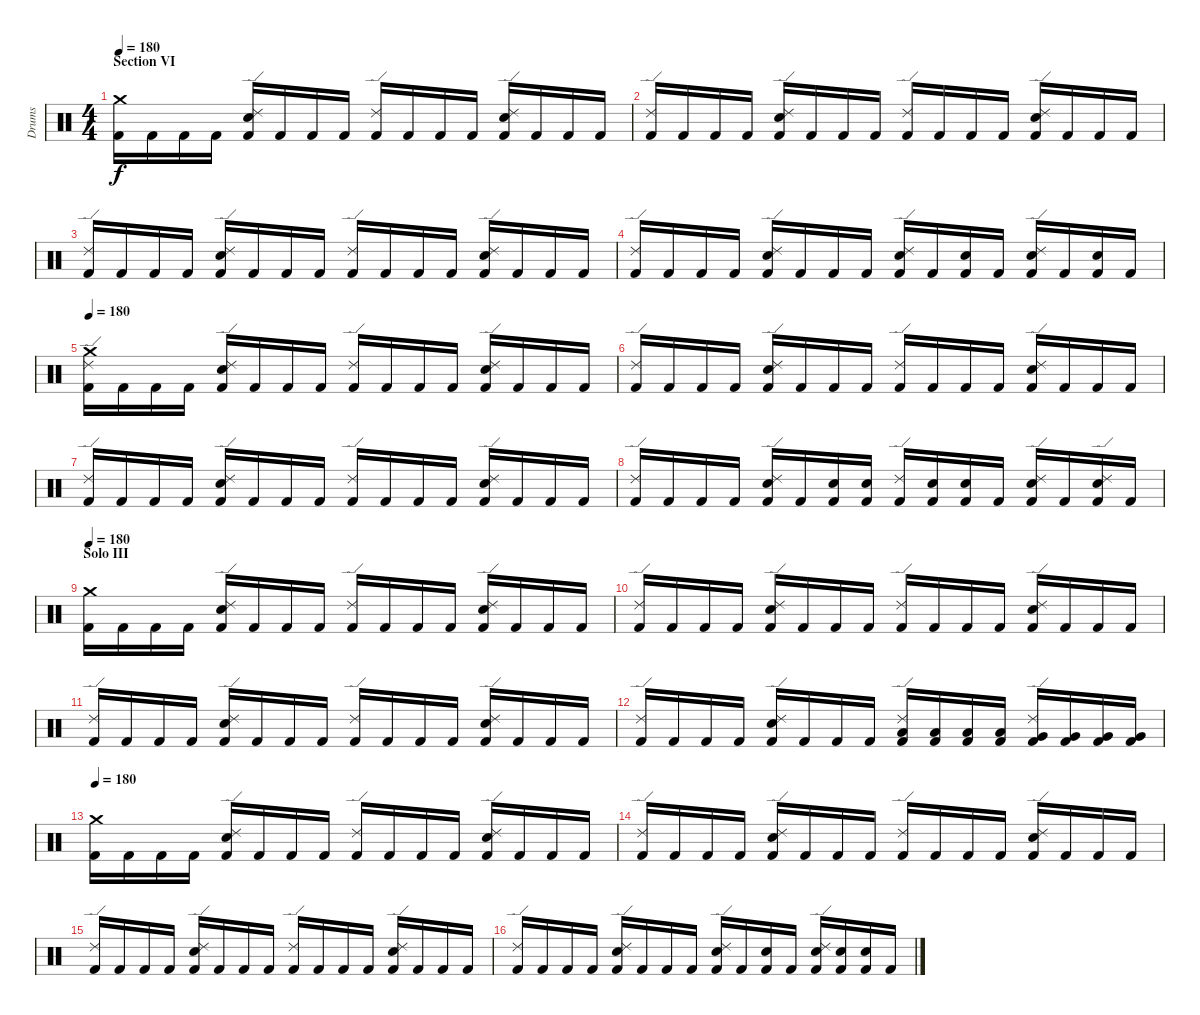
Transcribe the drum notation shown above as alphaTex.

\track ("Drums" "Drums") {instrument percussion}
\staff {score}
\articulation defaults
\ts (4 4)
\section ("" "Section VI")
\tempo 200
\tempo 180
\clef neutral
\ks c
("Crash medium (hit)" "Kick (hit) 2").16{dy f} "Kick (hit) 2".16 "Kick (hit) 2".16 "Kick (hit) 2".16 ("Ride (edge) 2" "Snare (hit) 2" "Kick (hit) 2").16 "Kick (hit) 2".16 "Kick (hit) 2".16 "Kick (hit) 2".16 ("Ride (edge) 2" "Kick (hit) 2").16 "Kick (hit) 2".16 "Kick (hit) 2".16 "Kick (hit) 2".16 ("Ride (edge) 2" "Snare (hit) 2" "Kick (hit) 2").16 "Kick (hit) 2".16 "Kick (hit) 2".16 "Kick (hit) 2".16 |
("Ride (edge) 2" "Kick (hit) 2").16 "Kick (hit) 2".16 "Kick (hit) 2".16 "Kick (hit) 2".16 ("Ride (edge) 2" "Snare (hit) 2" "Kick (hit) 2").16 "Kick (hit) 2".16 "Kick (hit) 2".16 "Kick (hit) 2".16 ("Ride (edge) 2" "Kick (hit) 2").16 "Kick (hit) 2".16 "Kick (hit) 2".16 "Kick (hit) 2".16 ("Ride (edge) 2" "Snare (hit) 2" "Kick (hit) 2").16 "Kick (hit) 2".16 "Kick (hit) 2".16 "Kick (hit) 2".16 |
("Ride (edge) 2" "Kick (hit) 2").16 "Kick (hit) 2".16 "Kick (hit) 2".16 "Kick (hit) 2".16 ("Ride (edge) 2" "Snare (hit) 2" "Kick (hit) 2").16 "Kick (hit) 2".16 "Kick (hit) 2".16 "Kick (hit) 2".16 ("Ride (edge) 2" "Kick (hit) 2").16 "Kick (hit) 2".16 "Kick (hit) 2".16 "Kick (hit) 2".16 ("Ride (edge) 2" "Snare (hit) 2" "Kick (hit) 2").16 "Kick (hit) 2".16 "Kick (hit) 2".16 "Kick (hit) 2".16 |
("Ride (edge) 2" "Kick (hit) 2").16 "Kick (hit) 2".16 "Kick (hit) 2".16 "Kick (hit) 2".16 ("Ride (edge) 2" "Snare (hit) 2" "Kick (hit) 2").16 "Kick (hit) 2".16 "Kick (hit) 2".16 "Kick (hit) 2".16 ("Ride (edge) 2" "Snare (hit) 2" "Kick (hit) 2").16 "Kick (hit) 2".16 ("Snare (hit) 2" "Kick (hit) 2").16 "Kick (hit) 2".16 ("Ride (edge) 2" "Snare (hit) 2" "Kick (hit) 2").16 "Kick (hit) 2".16 ("Snare (hit) 2" "Kick (hit) 2").16 "Kick (hit) 2".16 |
\tempo 180
("Crash medium (hit)" "Ride (edge) 2" "Kick (hit) 2").16 "Kick (hit) 2".16 "Kick (hit) 2".16 "Kick (hit) 2".16 ("Ride (edge) 2" "Snare (hit) 2" "Kick (hit) 2").16 "Kick (hit) 2".16 "Kick (hit) 2".16 "Kick (hit) 2".16 ("Ride (edge) 2" "Kick (hit) 2").16 "Kick (hit) 2".16 "Kick (hit) 2".16 "Kick (hit) 2".16 ("Ride (edge) 2" "Snare (hit) 2" "Kick (hit) 2").16 "Kick (hit) 2".16 "Kick (hit) 2".16 "Kick (hit) 2".16 |
("Ride (edge) 2" "Kick (hit) 2").16 "Kick (hit) 2".16 "Kick (hit) 2".16 "Kick (hit) 2".16 ("Ride (edge) 2" "Snare (hit) 2" "Kick (hit) 2").16 "Kick (hit) 2".16 "Kick (hit) 2".16 "Kick (hit) 2".16 ("Ride (edge) 2" "Kick (hit) 2").16 "Kick (hit) 2".16 "Kick (hit) 2".16 "Kick (hit) 2".16 ("Ride (edge) 2" "Snare (hit) 2" "Kick (hit) 2").16 "Kick (hit) 2".16 "Kick (hit) 2".16 "Kick (hit) 2".16 |
("Ride (edge) 2" "Kick (hit) 2").16 "Kick (hit) 2".16 "Kick (hit) 2".16 "Kick (hit) 2".16 ("Ride (edge) 2" "Snare (hit) 2" "Kick (hit) 2").16 "Kick (hit) 2".16 "Kick (hit) 2".16 "Kick (hit) 2".16 ("Ride (edge) 2" "Kick (hit) 2").16 "Kick (hit) 2".16 "Kick (hit) 2".16 "Kick (hit) 2".16 ("Ride (edge) 2" "Snare (hit) 2" "Kick (hit) 2").16 "Kick (hit) 2".16 "Kick (hit) 2".16 "Kick (hit) 2".16 |
("Ride (edge) 2" "Kick (hit) 2").16 "Kick (hit) 2".16 "Kick (hit) 2".16 "Kick (hit) 2".16 ("Ride (edge) 2" "Snare (hit) 2" "Kick (hit) 2").16 "Kick (hit) 2".16 ("Snare (hit) 2" "Kick (hit) 2").16 ("Snare (hit) 2" "Kick (hit) 2").16 ("Ride (edge) 2" "Kick (hit) 2").16 ("Snare (hit) 2" "Kick (hit) 2").16 ("Snare (hit) 2" "Kick (hit) 2").16 "Kick (hit) 2".16 ("Ride (edge) 2" "Snare (hit) 2" "Kick (hit) 2").16 "Kick (hit) 2".16 ("Ride (edge) 2" "Snare (hit) 2" "Kick (hit) 2").16 "Kick (hit) 2".16 |
\section ("" "Solo III")
\tempo 180
("Crash medium (hit)" "Kick (hit) 2").16 "Kick (hit) 2".16 "Kick (hit) 2".16 "Kick (hit) 2".16 ("Ride (edge) 2" "Snare (hit) 2" "Kick (hit) 2").16 "Kick (hit) 2".16 "Kick (hit) 2".16 "Kick (hit) 2".16 ("Ride (edge) 2" "Kick (hit) 2").16 "Kick (hit) 2".16 "Kick (hit) 2".16 "Kick (hit) 2".16 ("Ride (edge) 2" "Snare (hit) 2" "Kick (hit) 2").16 "Kick (hit) 2".16 "Kick (hit) 2".16 "Kick (hit) 2".16 |
("Ride (edge) 2" "Kick (hit) 2").16 "Kick (hit) 2".16 "Kick (hit) 2".16 "Kick (hit) 2".16 ("Ride (edge) 2" "Snare (hit) 2" "Kick (hit) 2").16 "Kick (hit) 2".16 "Kick (hit) 2".16 "Kick (hit) 2".16 ("Ride (edge) 2" "Kick (hit) 2").16 "Kick (hit) 2".16 "Kick (hit) 2".16 "Kick (hit) 2".16 ("Ride (edge) 2" "Snare (hit) 2" "Kick (hit) 2").16 "Kick (hit) 2".16 "Kick (hit) 2".16 "Kick (hit) 2".16 |
("Ride (edge) 2" "Kick (hit) 2").16 "Kick (hit) 2".16 "Kick (hit) 2".16 "Kick (hit) 2".16 ("Ride (edge) 2" "Snare (hit) 2" "Kick (hit) 2").16 "Kick (hit) 2".16 "Kick (hit) 2".16 "Kick (hit) 2".16 ("Ride (edge) 2" "Kick (hit) 2").16 "Kick (hit) 2".16 "Kick (hit) 2".16 "Kick (hit) 2".16 ("Ride (edge) 2" "Snare (hit) 2" "Kick (hit) 2").16 "Kick (hit) 2".16 "Kick (hit) 2".16 "Kick (hit) 2".16 |
("Ride (edge) 2" "Kick (hit) 2").16 "Kick (hit) 2".16 "Kick (hit) 2".16 "Kick (hit) 2".16 ("Ride (edge) 2" "Snare (hit) 2" "Kick (hit) 2").16 "Kick (hit) 2".16 "Kick (hit) 2".16 "Kick (hit) 2".16 ("Ride (edge) 2" "Low Tom (hit)" "Kick (hit) 2").16 ("Low Tom (hit)" "Kick (hit) 2").16 ("Low Tom (hit)" "Kick (hit) 2").16 ("Low Tom (hit)" "Kick (hit) 2").16 ("Ride (edge) 2" "Very Low Tom (hit)" "Kick (hit) 2").16 ("Very Low Tom (hit)" "Kick (hit) 2").16 ("Very Low Tom (hit)" "Kick (hit) 2").16 ("Very Low Tom (hit)" "Kick (hit) 2").16 |
\tempo 180
("Crash medium (hit)" "Kick (hit) 2").16 "Kick (hit) 2".16 "Kick (hit) 2".16 "Kick (hit) 2".16 ("Ride (edge) 2" "Snare (hit) 2" "Kick (hit) 2").16 "Kick (hit) 2".16 "Kick (hit) 2".16 "Kick (hit) 2".16 ("Ride (edge) 2" "Kick (hit) 2").16 "Kick (hit) 2".16 "Kick (hit) 2".16 "Kick (hit) 2".16 ("Ride (edge) 2" "Snare (hit) 2" "Kick (hit) 2").16 "Kick (hit) 2".16 "Kick (hit) 2".16 "Kick (hit) 2".16 |
("Ride (edge) 2" "Kick (hit) 2").16 "Kick (hit) 2".16 "Kick (hit) 2".16 "Kick (hit) 2".16 ("Ride (edge) 2" "Snare (hit) 2" "Kick (hit) 2").16 "Kick (hit) 2".16 "Kick (hit) 2".16 "Kick (hit) 2".16 ("Ride (edge) 2" "Kick (hit) 2").16 "Kick (hit) 2".16 "Kick (hit) 2".16 "Kick (hit) 2".16 ("Ride (edge) 2" "Snare (hit) 2" "Kick (hit) 2").16 "Kick (hit) 2".16 "Kick (hit) 2".16 "Kick (hit) 2".16 |
("Ride (edge) 2" "Kick (hit) 2").16 "Kick (hit) 2".16 "Kick (hit) 2".16 "Kick (hit) 2".16 ("Ride (edge) 2" "Snare (hit) 2" "Kick (hit) 2").16 "Kick (hit) 2".16 "Kick (hit) 2".16 "Kick (hit) 2".16 ("Ride (edge) 2" "Kick (hit) 2").16 "Kick (hit) 2".16 "Kick (hit) 2".16 "Kick (hit) 2".16 ("Ride (edge) 2" "Snare (hit) 2" "Kick (hit) 2").16 "Kick (hit) 2".16 "Kick (hit) 2".16 "Kick (hit) 2".16 |
("Ride (edge) 2" "Kick (hit) 2").16 "Kick (hit) 2".16 "Kick (hit) 2".16 "Kick (hit) 2".16 ("Ride (edge) 2" "Snare (hit) 2" "Kick (hit) 2").16 "Kick (hit) 2".16 "Kick (hit) 2".16 "Kick (hit) 2".16 ("Ride (edge) 2" "Snare (hit) 2" "Kick (hit) 2").16 "Kick (hit) 2".16 ("Snare (hit) 2" "Kick (hit) 2").16 "Kick (hit) 2".16 ("Ride (edge) 2" "Snare (hit) 2" "Kick (hit) 2").16 ("Snare (hit) 2" "Kick (hit) 2").16 ("Snare (hit) 2" "Kick (hit) 2").16 "Kick (hit) 2".16
